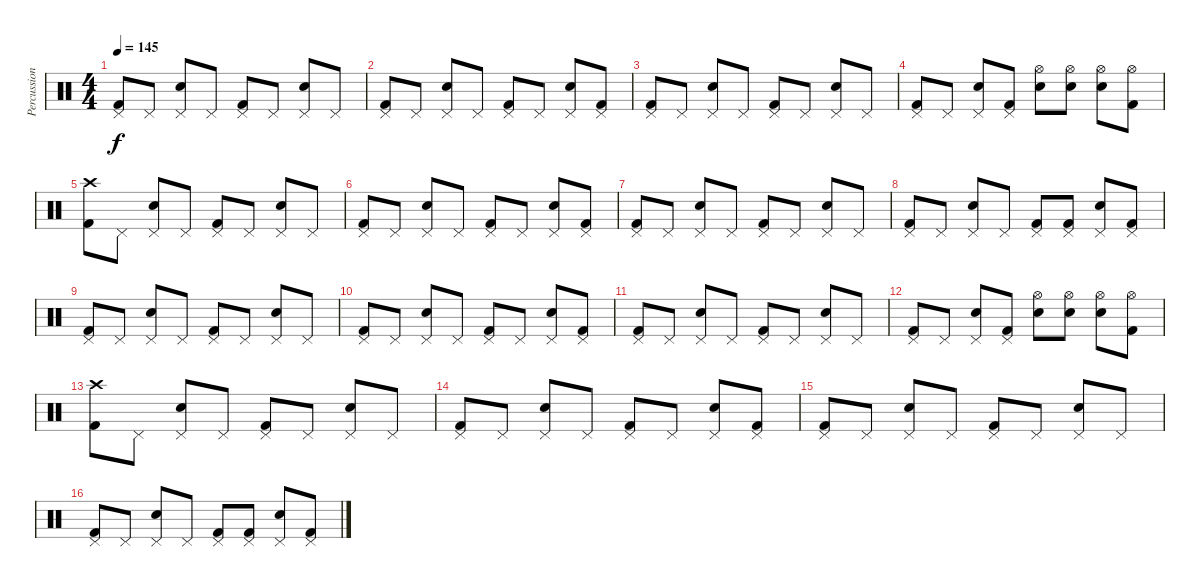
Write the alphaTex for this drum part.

\track ("Percussion" "Percussion") {instrument percussion}
\staff {score}
\articulation defaults
\ts (4 4)
\tempo 145
\clef neutral
\ks c
("Pedal Hi-Hat (hit)" "Kick (hit) 2").8{dy f} "Pedal Hi-Hat (hit)".8 ("Pedal Hi-Hat (hit)" "Electric Snare (hit)").8 "Pedal Hi-Hat (hit)".8 ("Pedal Hi-Hat (hit)" "Kick (hit) 2").8 "Pedal Hi-Hat (hit)".8 ("Pedal Hi-Hat (hit)" "Electric Snare (hit)").8 "Pedal Hi-Hat (hit)".8 |
("Pedal Hi-Hat (hit)" "Kick (hit) 2").8 "Pedal Hi-Hat (hit)".8 ("Pedal Hi-Hat (hit)" "Electric Snare (hit)").8 "Pedal Hi-Hat (hit)".8 ("Pedal Hi-Hat (hit)" "Kick (hit) 2").8 "Pedal Hi-Hat (hit)".8 ("Pedal Hi-Hat (hit)" "Electric Snare (hit)").8 ("Pedal Hi-Hat (hit)" "Kick (hit) 2").8 |
("Pedal Hi-Hat (hit)" "Kick (hit) 2").8 "Pedal Hi-Hat (hit)".8 ("Pedal Hi-Hat (hit)" "Electric Snare (hit)").8 "Pedal Hi-Hat (hit)".8 ("Pedal Hi-Hat (hit)" "Kick (hit) 2").8 "Pedal Hi-Hat (hit)".8 ("Pedal Hi-Hat (hit)" "Electric Snare (hit)").8 "Pedal Hi-Hat (hit)".8 |
("Pedal Hi-Hat (hit)" "Kick (hit) 2").8 "Pedal Hi-Hat (hit)".8 ("Pedal Hi-Hat (hit)" "Electric Snare (hit)").8 ("Pedal Hi-Hat (hit)" "Kick (hit) 2").8 ("Hi-Hat (open)" "Electric Snare (hit)").8 ("Hi-Hat (open)" "Electric Snare (hit)").8 ("Hi-Hat (open)" "Electric Snare (hit)").8 ("Hi-Hat (open)" "Kick (hit) 2").8 |
("Crash high (hit)" "Kick (hit) 2").8 "Pedal Hi-Hat (hit)".8 ("Pedal Hi-Hat (hit)" "Electric Snare (hit)").8 "Pedal Hi-Hat (hit)".8 ("Pedal Hi-Hat (hit)" "Kick (hit) 2").8 "Pedal Hi-Hat (hit)".8 ("Pedal Hi-Hat (hit)" "Electric Snare (hit)").8 "Pedal Hi-Hat (hit)".8 |
("Pedal Hi-Hat (hit)" "Kick (hit) 2").8 "Pedal Hi-Hat (hit)".8 ("Pedal Hi-Hat (hit)" "Electric Snare (hit)").8 "Pedal Hi-Hat (hit)".8 ("Pedal Hi-Hat (hit)" "Kick (hit) 2").8 "Pedal Hi-Hat (hit)".8 ("Pedal Hi-Hat (hit)" "Electric Snare (hit)").8 ("Pedal Hi-Hat (hit)" "Kick (hit) 2").8 |
("Pedal Hi-Hat (hit)" "Kick (hit) 2").8 "Pedal Hi-Hat (hit)".8 ("Pedal Hi-Hat (hit)" "Electric Snare (hit)").8 "Pedal Hi-Hat (hit)".8 ("Pedal Hi-Hat (hit)" "Kick (hit) 2").8 "Pedal Hi-Hat (hit)".8 ("Pedal Hi-Hat (hit)" "Electric Snare (hit)").8 "Pedal Hi-Hat (hit)".8 |
("Pedal Hi-Hat (hit)" "Kick (hit) 2").8 "Pedal Hi-Hat (hit)".8 ("Pedal Hi-Hat (hit)" "Electric Snare (hit)").8 "Pedal Hi-Hat (hit)".8 ("Pedal Hi-Hat (hit)" "Kick (hit) 2").8 ("Pedal Hi-Hat (hit)" "Kick (hit) 2").8 ("Pedal Hi-Hat (hit)" "Electric Snare (hit)").8 ("Pedal Hi-Hat (hit)" "Kick (hit) 2").8 |
("Pedal Hi-Hat (hit)" "Kick (hit) 2").8 "Pedal Hi-Hat (hit)".8 ("Pedal Hi-Hat (hit)" "Electric Snare (hit)").8 "Pedal Hi-Hat (hit)".8 ("Pedal Hi-Hat (hit)" "Kick (hit) 2").8 "Pedal Hi-Hat (hit)".8 ("Pedal Hi-Hat (hit)" "Electric Snare (hit)").8 "Pedal Hi-Hat (hit)".8 |
("Pedal Hi-Hat (hit)" "Kick (hit) 2").8 "Pedal Hi-Hat (hit)".8 ("Pedal Hi-Hat (hit)" "Electric Snare (hit)").8 "Pedal Hi-Hat (hit)".8 ("Pedal Hi-Hat (hit)" "Kick (hit) 2").8 "Pedal Hi-Hat (hit)".8 ("Pedal Hi-Hat (hit)" "Electric Snare (hit)").8 ("Pedal Hi-Hat (hit)" "Kick (hit) 2").8 |
("Pedal Hi-Hat (hit)" "Kick (hit) 2").8 "Pedal Hi-Hat (hit)".8 ("Pedal Hi-Hat (hit)" "Electric Snare (hit)").8 "Pedal Hi-Hat (hit)".8 ("Pedal Hi-Hat (hit)" "Kick (hit) 2").8 "Pedal Hi-Hat (hit)".8 ("Pedal Hi-Hat (hit)" "Electric Snare (hit)").8 "Pedal Hi-Hat (hit)".8 |
("Pedal Hi-Hat (hit)" "Kick (hit) 2").8 "Pedal Hi-Hat (hit)".8 ("Pedal Hi-Hat (hit)" "Electric Snare (hit)").8 ("Pedal Hi-Hat (hit)" "Kick (hit) 2").8 ("Hi-Hat (open)" "Electric Snare (hit)").8 ("Hi-Hat (open)" "Electric Snare (hit)").8 ("Hi-Hat (open)" "Electric Snare (hit)").8 ("Hi-Hat (open)" "Kick (hit) 2").8 |
("Crash high (hit)" "Kick (hit) 2").8 "Pedal Hi-Hat (hit)".8 ("Pedal Hi-Hat (hit)" "Electric Snare (hit)").8 "Pedal Hi-Hat (hit)".8 ("Pedal Hi-Hat (hit)" "Kick (hit) 2").8 "Pedal Hi-Hat (hit)".8 ("Pedal Hi-Hat (hit)" "Electric Snare (hit)").8 "Pedal Hi-Hat (hit)".8 |
("Pedal Hi-Hat (hit)" "Kick (hit) 2").8 "Pedal Hi-Hat (hit)".8 ("Pedal Hi-Hat (hit)" "Electric Snare (hit)").8 "Pedal Hi-Hat (hit)".8 ("Pedal Hi-Hat (hit)" "Kick (hit) 2").8 "Pedal Hi-Hat (hit)".8 ("Pedal Hi-Hat (hit)" "Electric Snare (hit)").8 ("Pedal Hi-Hat (hit)" "Kick (hit) 2").8 |
("Pedal Hi-Hat (hit)" "Kick (hit) 2").8 "Pedal Hi-Hat (hit)".8 ("Pedal Hi-Hat (hit)" "Electric Snare (hit)").8 "Pedal Hi-Hat (hit)".8 ("Pedal Hi-Hat (hit)" "Kick (hit) 2").8 "Pedal Hi-Hat (hit)".8 ("Pedal Hi-Hat (hit)" "Electric Snare (hit)").8 "Pedal Hi-Hat (hit)".8 |
("Pedal Hi-Hat (hit)" "Kick (hit) 2").8 "Pedal Hi-Hat (hit)".8 ("Pedal Hi-Hat (hit)" "Electric Snare (hit)").8 "Pedal Hi-Hat (hit)".8 ("Pedal Hi-Hat (hit)" "Kick (hit) 2").8 ("Pedal Hi-Hat (hit)" "Kick (hit) 2").8 ("Pedal Hi-Hat (hit)" "Electric Snare (hit)").8 ("Pedal Hi-Hat (hit)" "Kick (hit) 2").8
